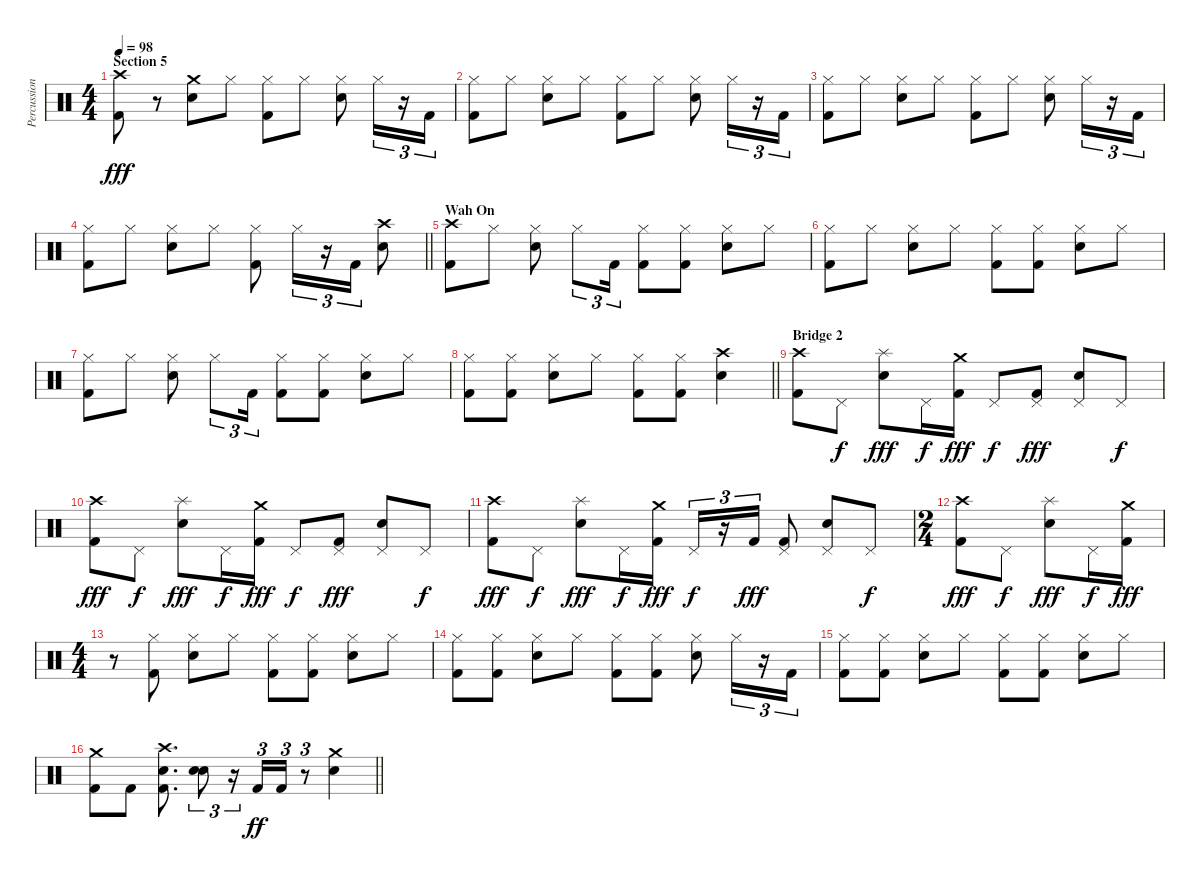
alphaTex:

\track ("Percussion" "Percussion") {instrument percussion}
\staff {score}
\articulation defaults
\ts (4 4)
\section ("" "Section 5")
\tempo 98
\clef neutral
\ks c
("Crash high (hit)" "Kick (hit) 2").8{dy fff} r.8 ("Crash medium (hit)" "Snare (hit) 2").8 "Hi-Hat (closed)".8 ("Hi-Hat (closed)" "Kick (hit) 2").8 "Hi-Hat (closed)".8 ("Hi-Hat (closed)" "Snare (hit) 2").8 "Hi-Hat (closed)".16{tu (3 2)} r.16{tu (3 2)} "Kick (hit) 2".16{tu (3 2)} |
("Hi-Hat (closed)" "Kick (hit) 2").8 "Hi-Hat (closed)".8 ("Hi-Hat (closed)" "Snare (hit) 2").8 "Hi-Hat (closed)".8 ("Hi-Hat (closed)" "Kick (hit) 2").8 "Hi-Hat (closed)".8 ("Hi-Hat (closed)" "Snare (hit) 2").8 "Hi-Hat (closed)".16{tu (3 2)} r.16{tu (3 2)} "Kick (hit) 2".16{tu (3 2)} |
("Hi-Hat (closed)" "Kick (hit) 2").8 "Hi-Hat (closed)".8 ("Hi-Hat (closed)" "Snare (hit) 2").8 "Hi-Hat (closed)".8 ("Hi-Hat (closed)" "Kick (hit) 2").8 "Hi-Hat (closed)".8 ("Hi-Hat (closed)" "Snare (hit) 2").8 "Hi-Hat (closed)".16{tu (3 2)} r.16{tu (3 2)} "Kick (hit) 2".16{tu (3 2)} |
\barLineRight lightlight
("Hi-Hat (closed)" "Kick (hit) 2").8 "Hi-Hat (closed)".8 ("Hi-Hat (closed)" "Snare (hit) 2").8 "Hi-Hat (closed)".8 ("Hi-Hat (closed)" "Kick (hit) 2").8 "Hi-Hat (closed)".16{tu (3 2)} r.16{tu (3 2)} "Kick (hit) 2".16{tu (3 2)} ("Crash high (hit)" "Snare (hit) 2").8 |
\section ("" "Wah On")
("Crash high (hit)" "Kick (hit) 2").8 "Hi-Hat (closed)".8 ("Hi-Hat (closed)" "Snare (hit) 2").8 "Hi-Hat (closed)".8{tu (3 2)} "Kick (hit) 2".16{tu (3 2)} ("Hi-Hat (closed)" "Kick (hit) 2").8 ("Hi-Hat (closed)" "Kick (hit) 2").8 ("Hi-Hat (closed)" "Snare (hit) 2").8 "Hi-Hat (closed)".8 |
("Hi-Hat (closed)" "Kick (hit) 2").8 "Hi-Hat (closed)".8 ("Hi-Hat (closed)" "Snare (hit) 2").8 "Hi-Hat (closed)".8 ("Hi-Hat (closed)" "Kick (hit) 2").8 ("Hi-Hat (closed)" "Kick (hit) 2").8 ("Hi-Hat (closed)" "Snare (hit) 2").8 "Hi-Hat (closed)".8 |
("Hi-Hat (closed)" "Kick (hit) 2").8 "Hi-Hat (closed)".8 ("Hi-Hat (closed)" "Snare (hit) 2").8 "Hi-Hat (closed)".8{tu (3 2)} "Kick (hit) 2".16{tu (3 2)} ("Hi-Hat (closed)" "Kick (hit) 2").8 ("Hi-Hat (closed)" "Kick (hit) 2").8 ("Hi-Hat (closed)" "Snare (hit) 2").8 "Hi-Hat (closed)".8 |
\barLineRight lightlight
("Hi-Hat (closed)" "Kick (hit) 2").8 ("Hi-Hat (closed)" "Kick (hit) 2").8 ("Hi-Hat (closed)" "Snare (hit) 2").8 "Hi-Hat (closed)".8 ("Hi-Hat (closed)" "Kick (hit) 2").8 ("Hi-Hat (closed)" "Kick (hit) 2").8 ("Crash high (hit)" "Snare (hit) 2").4 |
\section ("" "Bridge 2")
("Crash high (hit)" "Kick (hit) 2").8 "Pedal Hi-Hat (hit)".8{dy f} ("Splash (hit)" "Snare (hit) 2").8{dy fff} "Pedal Hi-Hat (hit)".16{dy f} ("Crash medium (hit)" "Kick (hit) 2").16{dy fff} "Pedal Hi-Hat (hit)".8{dy f} ("Pedal Hi-Hat (hit)" "Kick (hit) 2").8{dy fff} ("Pedal Hi-Hat (hit)" "Snare (hit) 2").8 "Pedal Hi-Hat (hit)".8{dy f} |
("Crash high (hit)" "Kick (hit) 2").8{dy fff} "Pedal Hi-Hat (hit)".8{dy f} ("Splash (hit)" "Snare (hit) 2").8{dy fff} "Pedal Hi-Hat (hit)".16{dy f} ("Crash medium (hit)" "Kick (hit) 2").16{dy fff} "Pedal Hi-Hat (hit)".8{dy f} ("Pedal Hi-Hat (hit)" "Kick (hit) 2").8{dy fff} ("Pedal Hi-Hat (hit)" "Snare (hit) 2").8 "Pedal Hi-Hat (hit)".8{dy f} |
("Crash high (hit)" "Kick (hit) 2").8{dy fff} "Pedal Hi-Hat (hit)".8{dy f} ("Splash (hit)" "Snare (hit) 2").8{dy fff} "Pedal Hi-Hat (hit)".16{dy f} ("Crash medium (hit)" "Kick (hit) 2").16{dy fff} "Pedal Hi-Hat (hit)".16{tu (3 2) dy f} r.16{tu (3 2)} "Kick (hit) 2".16{tu (3 2) dy fff} ("Pedal Hi-Hat (hit)" "Kick (hit) 2").8 ("Pedal Hi-Hat (hit)" "Snare (hit) 2").8 "Pedal Hi-Hat (hit)".8{dy f} |
\ts (2 4)
("Crash high (hit)" "Kick (hit) 2").8{dy fff} "Pedal Hi-Hat (hit)".8{dy f} ("Splash (hit)" "Snare (hit) 2").8{dy fff} "Pedal Hi-Hat (hit)".16{dy f} ("Crash medium (hit)" "Kick (hit) 2").16{dy fff} |
\ts (4 4)
r.8 ("Hi-Hat (closed)" "Kick (hit) 2").8 ("Hi-Hat (closed)" "Snare (hit) 2").8 "Hi-Hat (closed)".8 ("Hi-Hat (closed)" "Kick (hit) 2").8 ("Hi-Hat (closed)" "Kick (hit) 2").8 ("Hi-Hat (closed)" "Snare (hit) 2").8 "Hi-Hat (closed)".8 |
("Hi-Hat (closed)" "Kick (hit) 2").8 ("Hi-Hat (closed)" "Kick (hit) 2").8 ("Hi-Hat (closed)" "Snare (hit) 2").8 "Hi-Hat (closed)".8 ("Hi-Hat (closed)" "Kick (hit) 2").8 ("Hi-Hat (closed)" "Kick (hit) 2").8 ("Hi-Hat (closed)" "Snare (hit) 2").8 "Hi-Hat (closed)".16{tu (3 2)} r.16{tu (3 2)} "Kick (hit) 2".16{tu (3 2)} |
("Hi-Hat (closed)" "Kick (hit) 2").8 ("Hi-Hat (closed)" "Kick (hit) 2").8 ("Hi-Hat (closed)" "Snare (hit) 2").8 "Hi-Hat (closed)".8 ("Hi-Hat (closed)" "Kick (hit) 2").8 ("Hi-Hat (closed)" "Kick (hit) 2").8 ("Hi-Hat (closed)" "Snare (hit) 2").8 "Hi-Hat (closed)".8 |
\barLineRight lightlight
("Crash medium (hit)" "Kick (hit) 2").8 "Kick (hit) 2".8 ("Crash high (hit)" "Snare (hit) 2" "Kick (hit) 2").8{d} ("Snare (hit) 2" "Snare (hit) 2").8{tu (3 2)} r.16{tu (3 2)} "Kick (hit) 2".16{tu (3 2) dy ff} "Kick (hit) 2".16{tu (3 2)} r.8{tu (3 2)} ("Crash medium (hit)" "Snare (hit) 2").4
